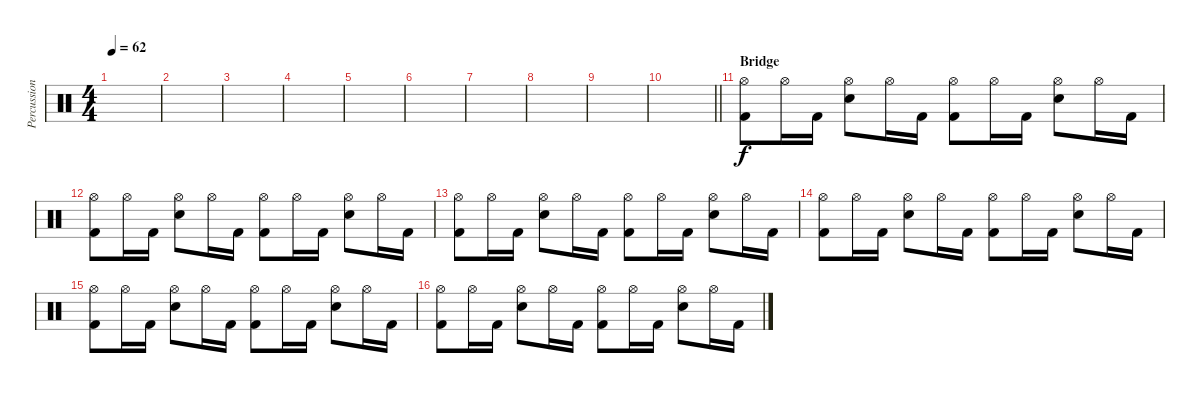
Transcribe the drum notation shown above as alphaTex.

\track ("Percussion" "Percussion") {instrument percussion}
\staff {score}
\articulation defaults
\ts (4 4)
\tempo 62
\clef neutral
\ks c
|
|
|
|
|
|
|
|
|
\barLineRight lightlight
|
\section ("" "Bridge")
("Hi-Hat (open)" "Kick (hit) 2").8 "Hi-Hat (open)".16 "Kick (hit) 2".16 ("Hi-Hat (open)" "Snare (hit) 2").8 "Hi-Hat (open)".16 "Kick (hit) 2".16 ("Hi-Hat (open)" "Kick (hit) 2").8 "Hi-Hat (open)".16 "Kick (hit) 2".16 ("Hi-Hat (open)" "Snare (hit) 2").8 "Hi-Hat (open)".16 "Kick (hit) 2".16 |
("Hi-Hat (open)" "Kick (hit) 2").8 "Hi-Hat (open)".16 "Kick (hit) 2".16 ("Hi-Hat (open)" "Snare (hit) 2").8 "Hi-Hat (open)".16 "Kick (hit) 2".16 ("Hi-Hat (open)" "Kick (hit) 2").8 "Hi-Hat (open)".16 "Kick (hit) 2".16 ("Hi-Hat (open)" "Snare (hit) 2").8 "Hi-Hat (open)".16 "Kick (hit) 2".16 |
("Hi-Hat (open)" "Kick (hit) 2").8 "Hi-Hat (open)".16 "Kick (hit) 2".16 ("Hi-Hat (open)" "Snare (hit) 2").8 "Hi-Hat (open)".16 "Kick (hit) 2".16 ("Hi-Hat (open)" "Kick (hit) 2").8 "Hi-Hat (open)".16 "Kick (hit) 2".16 ("Hi-Hat (open)" "Snare (hit) 2").8 "Hi-Hat (open)".16 "Kick (hit) 2".16 |
("Hi-Hat (open)" "Kick (hit) 2").8 "Hi-Hat (open)".16 "Kick (hit) 2".16 ("Hi-Hat (open)" "Snare (hit) 2").8 "Hi-Hat (open)".16 "Kick (hit) 2".16 ("Hi-Hat (open)" "Kick (hit) 2").8 "Hi-Hat (open)".16 "Kick (hit) 2".16 ("Hi-Hat (open)" "Snare (hit) 2").8 "Hi-Hat (open)".16 "Kick (hit) 2".16 |
("Hi-Hat (open)" "Kick (hit) 2").8 "Hi-Hat (open)".16 "Kick (hit) 2".16 ("Hi-Hat (open)" "Snare (hit) 2").8 "Hi-Hat (open)".16 "Kick (hit) 2".16 ("Hi-Hat (open)" "Kick (hit) 2").8 "Hi-Hat (open)".16 "Kick (hit) 2".16 ("Hi-Hat (open)" "Snare (hit) 2").8 "Hi-Hat (open)".16 "Kick (hit) 2".16 |
("Hi-Hat (open)" "Kick (hit) 2").8 "Hi-Hat (open)".16 "Kick (hit) 2".16 ("Hi-Hat (open)" "Snare (hit) 2").8 "Hi-Hat (open)".16 "Kick (hit) 2".16 ("Hi-Hat (open)" "Kick (hit) 2").8 "Hi-Hat (open)".16 "Kick (hit) 2".16 ("Hi-Hat (open)" "Snare (hit) 2").8 "Hi-Hat (open)".16 "Kick (hit) 2".16
